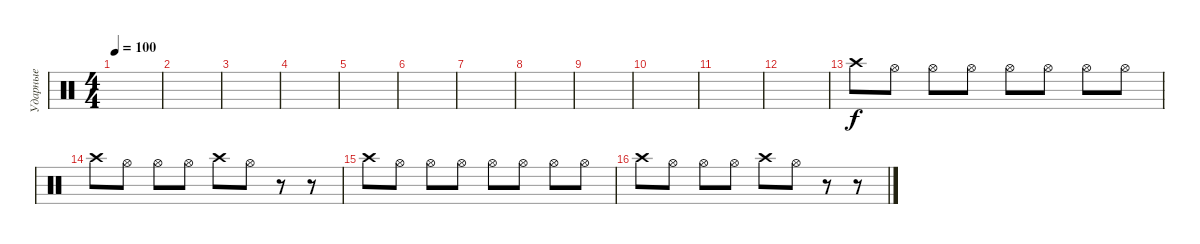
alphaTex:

\track ("Ударные" "Ударные") {instrument percussion}
\staff {score}
\articulation defaults
\ts (4 4)
\tempo 100
\clef neutral
\ks c
|
|
|
|
|
|
|
|
|
|
|
|
"Crash high (hit)".8 "Hi-Hat (open)".8 "Hi-Hat (open)".8 "Hi-Hat (open)".8 "Hi-Hat (open)".8 "Hi-Hat (open)".8 "Hi-Hat (open)".8 "Hi-Hat (open)".8 |
"Crash high (hit)".8 "Hi-Hat (open)".8 "Hi-Hat (open)".8 "Hi-Hat (open)".8 "Crash high (hit)".8 "Hi-Hat (open)".8 r.8 r.8 |
"Crash high (hit)".8 "Hi-Hat (open)".8 "Hi-Hat (open)".8 "Hi-Hat (open)".8 "Hi-Hat (open)".8 "Hi-Hat (open)".8 "Hi-Hat (open)".8 "Hi-Hat (open)".8 |
"Crash high (hit)".8 "Hi-Hat (open)".8 "Hi-Hat (open)".8 "Hi-Hat (open)".8 "Crash high (hit)".8 "Hi-Hat (open)".8 r.8 r.8
